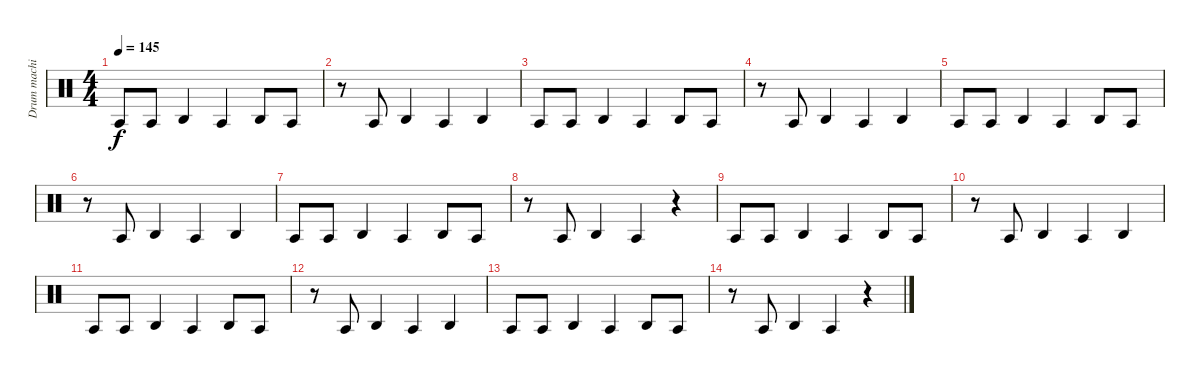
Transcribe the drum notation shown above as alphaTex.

\track ("Drum machine" "Drum machi") {instrument percussion}
\staff {score}
\articulation defaults
\ts (4 4)
\tempo 145
\clef neutral
\ks c "Agogo tow (hit)".8{dy f} "Agogo tow (hit)".8 "Agogo high (hit)".4 "Agogo tow (hit)".4 "Agogo high (hit)".8 "Agogo tow (hit)".8
|
r.8 "Agogo tow (hit)".8 "Agogo high (hit)".4 "Agogo tow (hit)".4 "Agogo high (hit)".4 |
"Agogo tow (hit)".8 "Agogo tow (hit)".8 "Agogo high (hit)".4 "Agogo tow (hit)".4 "Agogo high (hit)".8 "Agogo tow (hit)".8 |
r.8 "Agogo tow (hit)".8 "Agogo high (hit)".4 "Agogo tow (hit)".4 "Agogo high (hit)".4 |
"Agogo tow (hit)".8 "Agogo tow (hit)".8 "Agogo high (hit)".4 "Agogo tow (hit)".4 "Agogo high (hit)".8 "Agogo tow (hit)".8 |
r.8 "Agogo tow (hit)".8 "Agogo high (hit)".4 "Agogo tow (hit)".4 "Agogo high (hit)".4 |
"Agogo tow (hit)".8 "Agogo tow (hit)".8 "Agogo high (hit)".4 "Agogo tow (hit)".4 "Agogo high (hit)".8 "Agogo tow (hit)".8 |
r.8 "Agogo tow (hit)".8 "Agogo high (hit)".4 "Agogo tow (hit)".4 r.4 |
"Agogo tow (hit)".8 "Agogo tow (hit)".8 "Agogo high (hit)".4 "Agogo tow (hit)".4 "Agogo high (hit)".8 "Agogo tow (hit)".8 |
r.8 "Agogo tow (hit)".8 "Agogo high (hit)".4 "Agogo tow (hit)".4 "Agogo high (hit)".4 |
"Agogo tow (hit)".8 "Agogo tow (hit)".8 "Agogo high (hit)".4 "Agogo tow (hit)".4 "Agogo high (hit)".8 "Agogo tow (hit)".8 |
r.8 "Agogo tow (hit)".8 "Agogo high (hit)".4 "Agogo tow (hit)".4 "Agogo high (hit)".4 |
"Agogo tow (hit)".8 "Agogo tow (hit)".8 "Agogo high (hit)".4 "Agogo tow (hit)".4 "Agogo high (hit)".8 "Agogo tow (hit)".8 |
r.8 "Agogo tow (hit)".8 "Agogo high (hit)".4 "Agogo tow (hit)".4 r.4
